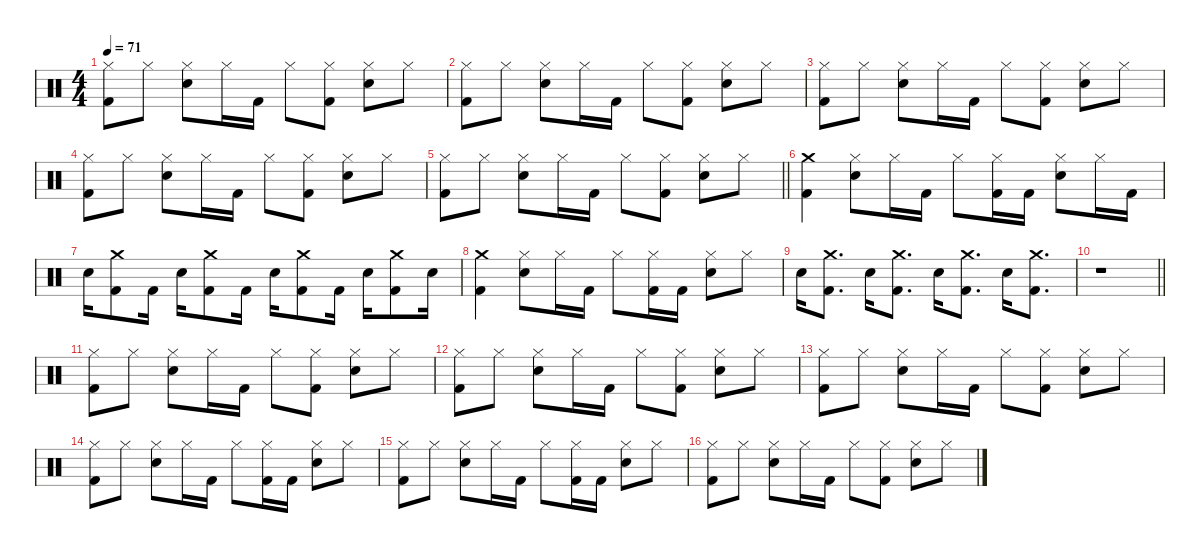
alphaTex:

\defaultSystemsLayout 4
\hideDynamics
\bracketExtendMode nobrackets
\singleTrackTrackNamePolicy hidden
\multiTrackTrackNamePolicy hidden
\firstSystemTrackNameMode fullname
\firstSystemTrackNameOrientation horizontal
\otherSystemsTrackNameOrientation horizontal
\track ("Drums" "drm.") {instrument percussion}
\staff {score}
\articulation defaults
\ts (4 4)
\tempo 71
\clef neutral
\ks c
("Hi-Hat (closed)" "Kick (hit) 2").8{dy f beam Down} "Hi-Hat (closed)".8{beam Down} ("Hi-Hat (closed)" "Snare (hit) 2").8{beam Down} "Hi-Hat (closed)".16{beam Down} "Kick (hit) 2".16{beam Down} "Hi-Hat (closed)".8{beam Down} ("Kick (hit) 2" "Hi-Hat (closed)").8{beam Down} ("Hi-Hat (closed)" "Snare (hit) 2").8{beam Down} "Hi-Hat (closed)".8{beam Down} |
("Hi-Hat (closed)" "Kick (hit) 2").8{beam Down} "Hi-Hat (closed)".8{beam Down} ("Hi-Hat (closed)" "Snare (hit) 2").8{beam Down} "Hi-Hat (closed)".16{beam Down} "Kick (hit) 2".16{beam Down} "Hi-Hat (closed)".8{beam Down} ("Kick (hit) 2" "Hi-Hat (closed)").8{beam Down} ("Hi-Hat (closed)" "Snare (hit) 2").8{beam Down} "Hi-Hat (closed)".8{beam Down} |
("Hi-Hat (closed)" "Kick (hit) 2").8{beam Down} "Hi-Hat (closed)".8{beam Down} ("Hi-Hat (closed)" "Snare (hit) 2").8{beam Down} "Hi-Hat (closed)".16{beam Down} "Kick (hit) 2".16{beam Down} "Hi-Hat (closed)".8{beam Down} ("Kick (hit) 2" "Hi-Hat (closed)").8{beam Down} ("Hi-Hat (closed)" "Snare (hit) 2").8{beam Down} "Hi-Hat (closed)".8{beam Down} |
("Hi-Hat (closed)" "Kick (hit) 2").8{beam Down} "Hi-Hat (closed)".8{beam Down} ("Hi-Hat (closed)" "Snare (hit) 2").8{beam Down} "Hi-Hat (closed)".16{beam Down} "Kick (hit) 2".16{beam Down} "Hi-Hat (closed)".8{beam Down} ("Kick (hit) 2" "Hi-Hat (closed)").8{beam Down} ("Hi-Hat (closed)" "Snare (hit) 2").8{beam Down} "Hi-Hat (closed)".8{beam Down} |
\barLineRight lightlight
("Hi-Hat (closed)" "Kick (hit) 2").8{beam Down} "Hi-Hat (closed)".8{beam Down} ("Hi-Hat (closed)" "Snare (hit) 2").8{beam Down} "Hi-Hat (closed)".16{beam Down} "Kick (hit) 2".16{beam Down} "Hi-Hat (closed)".8{beam Down} ("Kick (hit) 2" "Hi-Hat (closed)").8{beam Down} ("Hi-Hat (closed)" "Snare (hit) 2").8{beam Down} "Hi-Hat (closed)".8{beam Down} |
("Crash medium (hit)" "Kick (hit) 2").4{beam Down} ("Snare (hit) 2" "Hi-Hat (closed)").8{beam Down} "Hi-Hat (closed)".16{beam Down} "Kick (hit) 2".16{beam Down} "Hi-Hat (closed)".8{beam Down} ("Hi-Hat (closed)" "Kick (hit) 2").16{beam Down} "Kick (hit) 2".16{beam Down} ("Hi-Hat (closed)" "Snare (hit) 2").8{beam Down} "Hi-Hat (closed)".16{beam Down} "Kick (hit) 2".16{beam Down} |
"Snare (hit) 2".16{beam Down} ("Crash medium (hit)" "Kick (hit) 2").8{beam Down} "Kick (hit) 2".16{beam Down} "Snare (hit) 2".16{beam Down} ("Crash medium (hit)" "Kick (hit) 2").8{beam Down} "Kick (hit) 2".16{beam Down} "Snare (hit) 2".16{beam Down} ("Crash medium (hit)" "Kick (hit) 2").8{beam Down} "Kick (hit) 2".16{beam Down} "Snare (hit) 2".16{beam Down} ("Crash medium (hit)" "Kick (hit) 2").8{beam Down} "Snare (hit) 2".16{beam Down} |
("Kick (hit) 2" "Crash medium (hit)").4{beam Down} ("Hi-Hat (closed)" "Snare (hit) 2").8{beam Down} "Hi-Hat (closed)".16{beam Down} "Kick (hit) 2".16{beam Down} "Hi-Hat (closed)".8{beam Down} ("Kick (hit) 2" "Hi-Hat (closed)").16{beam Down} "Kick (hit) 2".16{beam Down} ("Hi-Hat (closed)" "Snare (hit) 2").8{beam Down} "Hi-Hat (closed)".8{beam Down} |
"Snare (hit) 2".16{beam Down} ("Crash medium (hit)" "Kick (hit) 2").8{d beam Down} "Snare (hit) 2".16{beam Down} ("Crash medium (hit)" "Kick (hit) 2").8{d beam Down} "Snare (hit) 2".16{beam Down} ("Crash medium (hit)" "Kick (hit) 2").8{d beam Down} "Snare (hit) 2".16{beam Down} ("Crash medium (hit)" "Kick (hit) 2").8{d beam Down} |
\barLineRight lightlight
r.1{beam Down} |
("Hi-Hat (closed)" "Kick (hit) 2").8{beam Down} "Hi-Hat (closed)".8{beam Down} ("Hi-Hat (closed)" "Snare (hit) 2").8{beam Down} "Hi-Hat (closed)".16{beam Down} "Kick (hit) 2".16{beam Down} "Hi-Hat (closed)".8{beam Down} ("Kick (hit) 2" "Hi-Hat (closed)").8{beam Down} ("Hi-Hat (closed)" "Snare (hit) 2").8{beam Down} "Hi-Hat (closed)".8{beam Down} |
("Hi-Hat (closed)" "Kick (hit) 2").8{beam Down} "Hi-Hat (closed)".8{beam Down} ("Hi-Hat (closed)" "Snare (hit) 2").8{beam Down} "Hi-Hat (closed)".16{beam Down} "Kick (hit) 2".16{beam Down} "Hi-Hat (closed)".8{beam Down} ("Kick (hit) 2" "Hi-Hat (closed)").8{beam Down} ("Hi-Hat (closed)" "Snare (hit) 2").8{beam Down} "Hi-Hat (closed)".8{beam Down} |
("Hi-Hat (closed)" "Kick (hit) 2").8{beam Down} "Hi-Hat (closed)".8{beam Down} ("Hi-Hat (closed)" "Snare (hit) 2").8{beam Down} "Hi-Hat (closed)".16{beam Down} "Kick (hit) 2".16{beam Down} "Hi-Hat (closed)".8{beam Down} ("Kick (hit) 2" "Hi-Hat (closed)").8{beam Down} ("Hi-Hat (closed)" "Snare (hit) 2").8{beam Down} "Hi-Hat (closed)".8{beam Down} |
("Hi-Hat (closed)" "Kick (hit) 2").8{beam Down} "Hi-Hat (closed)".8{beam Down} ("Hi-Hat (closed)" "Snare (hit) 2").8{beam Down} "Hi-Hat (closed)".16{beam Down} "Kick (hit) 2".16{beam Down} "Hi-Hat (closed)".8{beam Down} ("Kick (hit) 2" "Hi-Hat (closed)").16{beam Down} "Kick (hit) 2".16{beam Down} ("Hi-Hat (closed)" "Snare (hit) 2").8{beam Down} "Hi-Hat (closed)".8{beam Down} |
("Hi-Hat (closed)" "Kick (hit) 2").8{beam Down} "Hi-Hat (closed)".8{beam Down} ("Hi-Hat (closed)" "Snare (hit) 2").8{beam Down} "Hi-Hat (closed)".16{beam Down} "Kick (hit) 2".16{beam Down} "Hi-Hat (closed)".8{beam Down} ("Kick (hit) 2" "Hi-Hat (closed)").16{beam Down} "Kick (hit) 2".16{beam Down} ("Hi-Hat (closed)" "Snare (hit) 2").8{beam Down} "Hi-Hat (closed)".8{beam Down} |
("Hi-Hat (closed)" "Kick (hit) 2").8{beam Down} "Hi-Hat (closed)".8{beam Down} ("Hi-Hat (closed)" "Snare (hit) 2").8{beam Down} "Hi-Hat (closed)".16{beam Down} "Kick (hit) 2".16{beam Down} "Hi-Hat (closed)".8{beam Down} ("Kick (hit) 2" "Hi-Hat (closed)").8{beam Down} ("Hi-Hat (closed)" "Snare (hit) 2").8{beam Down} "Hi-Hat (closed)".8{beam Down}
